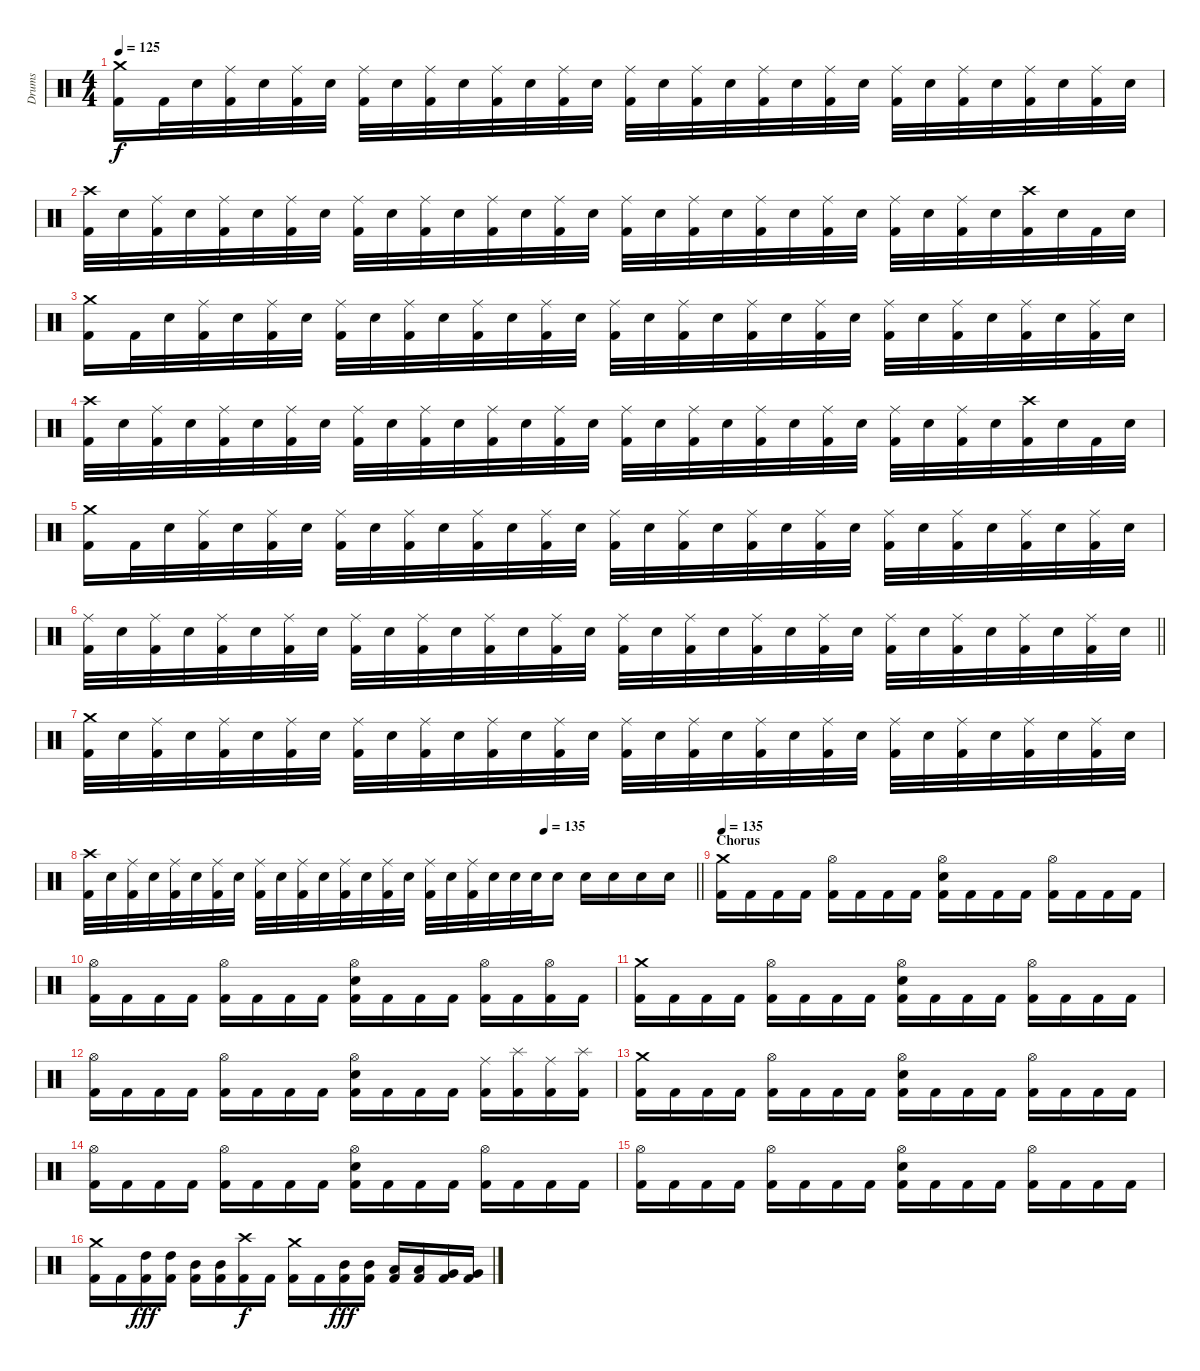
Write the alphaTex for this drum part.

\track ("Drums" "Drums") {instrument percussion}
\staff {score}
\articulation defaults
\ts (4 4)
\tempo 125
\clef neutral
\ks c
("Kick (hit) 2" "Crash medium (hit)").16{dy f} "Kick (hit) 2".32 "Electric Snare (hit)".32 ("Kick (hit) 2" "Ride (middle)").32 "Electric Snare (hit)".32 ("Kick (hit) 2" "Ride (middle)").32 "Electric Snare (hit)".32 ("Kick (hit) 2" "Ride (middle)").32 "Electric Snare (hit)".32 ("Kick (hit) 2" "Ride (middle)").32 "Electric Snare (hit)".32 ("Kick (hit) 2" "Ride (middle)").32 "Electric Snare (hit)".32 ("Kick (hit) 2" "Ride (middle)").32 "Electric Snare (hit)".32 ("Kick (hit) 2" "Ride (middle)").32 "Electric Snare (hit)".32 ("Kick (hit) 2" "Ride (middle)").32 "Electric Snare (hit)".32 ("Kick (hit) 2" "Ride (middle)").32 "Electric Snare (hit)".32 ("Kick (hit) 2" "Ride (middle)").32 "Electric Snare (hit)".32 ("Kick (hit) 2" "Ride (middle)").32 "Electric Snare (hit)".32 ("Kick (hit) 2" "Ride (middle)").32 "Electric Snare (hit)".32 ("Kick (hit) 2" "Ride (middle)").32 "Electric Snare (hit)".32 ("Kick (hit) 2" "Ride (middle)").32 "Electric Snare (hit)".32 |
("Kick (hit) 2" "Crash high (hit)").32 "Electric Snare (hit)".32 ("Kick (hit) 2" "Ride (middle)").32 "Electric Snare (hit)".32 ("Kick (hit) 2" "Ride (middle)").32 "Electric Snare (hit)".32 ("Kick (hit) 2" "Ride (middle)").32 "Electric Snare (hit)".32 ("Kick (hit) 2" "Ride (middle)").32 "Electric Snare (hit)".32 ("Kick (hit) 2" "Ride (middle)").32 "Electric Snare (hit)".32 ("Kick (hit) 2" "Ride (middle)").32 "Electric Snare (hit)".32 ("Kick (hit) 2" "Ride (middle)").32 "Electric Snare (hit)".32 ("Kick (hit) 2" "Ride (middle)").32 "Electric Snare (hit)".32 ("Kick (hit) 2" "Ride (middle)").32 "Electric Snare (hit)".32 ("Kick (hit) 2" "Ride (middle)").32 "Electric Snare (hit)".32 ("Kick (hit) 2" "Ride (middle)").32 "Electric Snare (hit)".32 ("Kick (hit) 2" "Ride (middle)").32 "Electric Snare (hit)".32 ("Kick (hit) 2" "Ride (middle)").32 "Electric Snare (hit)".32 ("Kick (hit) 2" "Crash high (hit)").32 "Electric Snare (hit)".32 "Kick (hit) 2".32 "Electric Snare (hit)".32 |
("Kick (hit) 2" "Crash medium (hit)").16 "Kick (hit) 2".32 "Electric Snare (hit)".32 ("Kick (hit) 2" "Ride (middle)").32 "Electric Snare (hit)".32 ("Kick (hit) 2" "Ride (middle)").32 "Electric Snare (hit)".32 ("Kick (hit) 2" "Ride (middle)").32 "Electric Snare (hit)".32 ("Kick (hit) 2" "Ride (middle)").32 "Electric Snare (hit)".32 ("Kick (hit) 2" "Ride (middle)").32 "Electric Snare (hit)".32 ("Kick (hit) 2" "Ride (middle)").32 "Electric Snare (hit)".32 ("Kick (hit) 2" "Ride (middle)").32 "Electric Snare (hit)".32 ("Kick (hit) 2" "Ride (middle)").32 "Electric Snare (hit)".32 ("Kick (hit) 2" "Ride (middle)").32 "Electric Snare (hit)".32 ("Kick (hit) 2" "Ride (middle)").32 "Electric Snare (hit)".32 ("Kick (hit) 2" "Ride (middle)").32 "Electric Snare (hit)".32 ("Kick (hit) 2" "Ride (middle)").32 "Electric Snare (hit)".32 ("Kick (hit) 2" "Ride (middle)").32 "Electric Snare (hit)".32 ("Kick (hit) 2" "Ride (middle)").32 "Electric Snare (hit)".32 |
("Kick (hit) 2" "Crash high (hit)").32 "Electric Snare (hit)".32 ("Kick (hit) 2" "Ride (middle)").32 "Electric Snare (hit)".32 ("Kick (hit) 2" "Ride (middle)").32 "Electric Snare (hit)".32 ("Kick (hit) 2" "Ride (middle)").32 "Electric Snare (hit)".32 ("Kick (hit) 2" "Ride (middle)").32 "Electric Snare (hit)".32 ("Kick (hit) 2" "Ride (middle)").32 "Electric Snare (hit)".32 ("Kick (hit) 2" "Ride (middle)").32 "Electric Snare (hit)".32 ("Kick (hit) 2" "Ride (middle)").32 "Electric Snare (hit)".32 ("Kick (hit) 2" "Ride (middle)").32 "Electric Snare (hit)".32 ("Kick (hit) 2" "Ride (middle)").32 "Electric Snare (hit)".32 ("Kick (hit) 2" "Ride (middle)").32 "Electric Snare (hit)".32 ("Kick (hit) 2" "Ride (middle)").32 "Electric Snare (hit)".32 ("Kick (hit) 2" "Ride (middle)").32 "Electric Snare (hit)".32 ("Kick (hit) 2" "Ride (middle)").32 "Electric Snare (hit)".32 ("Kick (hit) 2" "Crash high (hit)").32 "Electric Snare (hit)".32 "Kick (hit) 2".32 "Electric Snare (hit)".32 |
("Kick (hit) 2" "Crash medium (hit)").16 "Kick (hit) 2".32 "Electric Snare (hit)".32 ("Kick (hit) 2" "Ride (middle)").32 "Electric Snare (hit)".32 ("Kick (hit) 2" "Ride (middle)").32 "Electric Snare (hit)".32 ("Kick (hit) 2" "Ride (middle)").32 "Electric Snare (hit)".32 ("Kick (hit) 2" "Ride (middle)").32 "Electric Snare (hit)".32 ("Kick (hit) 2" "Ride (middle)").32 "Electric Snare (hit)".32 ("Kick (hit) 2" "Ride (middle)").32 "Electric Snare (hit)".32 ("Kick (hit) 2" "Ride (middle)").32 "Electric Snare (hit)".32 ("Kick (hit) 2" "Ride (middle)").32 "Electric Snare (hit)".32 ("Kick (hit) 2" "Ride (middle)").32 "Electric Snare (hit)".32 ("Kick (hit) 2" "Ride (middle)").32 "Electric Snare (hit)".32 ("Kick (hit) 2" "Ride (middle)").32 "Electric Snare (hit)".32 ("Kick (hit) 2" "Ride (middle)").32 "Electric Snare (hit)".32 ("Kick (hit) 2" "Ride (middle)").32 "Electric Snare (hit)".32 ("Kick (hit) 2" "Ride (middle)").32 "Electric Snare (hit)".32 |
\barLineRight lightlight
("Kick (hit) 2" "Ride (middle)").32 "Electric Snare (hit)".32 ("Kick (hit) 2" "Ride (middle)").32 "Electric Snare (hit)".32 ("Kick (hit) 2" "Ride (middle)").32 "Electric Snare (hit)".32 ("Kick (hit) 2" "Ride (middle)").32 "Electric Snare (hit)".32 ("Kick (hit) 2" "Ride (middle)").32 "Electric Snare (hit)".32 ("Kick (hit) 2" "Ride (middle)").32 "Electric Snare (hit)".32 ("Kick (hit) 2" "Ride (middle)").32 "Electric Snare (hit)".32 ("Kick (hit) 2" "Ride (middle)").32 "Electric Snare (hit)".32 ("Kick (hit) 2" "Ride (middle)").32 "Electric Snare (hit)".32 ("Kick (hit) 2" "Ride (middle)").32 "Electric Snare (hit)".32 ("Kick (hit) 2" "Ride (middle)").32 "Electric Snare (hit)".32 ("Kick (hit) 2" "Ride (middle)").32 "Electric Snare (hit)".32 ("Kick (hit) 2" "Ride (middle)").32 "Electric Snare (hit)".32 ("Kick (hit) 2" "Ride (middle)").32 "Electric Snare (hit)".32 ("Kick (hit) 2" "Ride (middle)").32 "Electric Snare (hit)".32 ("Kick (hit) 2" "Ride (middle)").32 "Electric Snare (hit)".32 |
("Kick (hit) 2" "Crash medium (hit)").32 "Electric Snare (hit)".32 ("Kick (hit) 2" "Ride (middle)").32 "Electric Snare (hit)".32 ("Kick (hit) 2" "Ride (middle)").32 "Electric Snare (hit)".32 ("Kick (hit) 2" "Ride (middle)").32 "Electric Snare (hit)".32 ("Kick (hit) 2" "Ride (middle)").32 "Electric Snare (hit)".32 ("Kick (hit) 2" "Ride (middle)").32 "Electric Snare (hit)".32 ("Kick (hit) 2" "Ride (middle)").32 "Electric Snare (hit)".32 ("Kick (hit) 2" "Ride (middle)").32 "Electric Snare (hit)".32 ("Kick (hit) 2" "Ride (middle)").32 "Electric Snare (hit)".32 ("Kick (hit) 2" "Ride (middle)").32 "Electric Snare (hit)".32 ("Kick (hit) 2" "Ride (middle)").32 "Electric Snare (hit)".32 ("Kick (hit) 2" "Ride (middle)").32 "Electric Snare (hit)".32 ("Kick (hit) 2" "Ride (middle)").32 "Electric Snare (hit)".32 ("Kick (hit) 2" "Ride (middle)").32 "Electric Snare (hit)".32 ("Kick (hit) 2" "Ride (middle)").32 "Electric Snare (hit)".32 ("Kick (hit) 2" "Ride (middle)").32 "Electric Snare (hit)".32 |
\tempo (135 0.75)
\barLineRight lightlight
("Kick (hit) 2" "Crash high (hit)").32 "Electric Snare (hit)".32 ("Kick (hit) 2" "Ride (middle)").32 "Electric Snare (hit)".32 ("Kick (hit) 2" "Ride (middle)").32 "Electric Snare (hit)".32 ("Kick (hit) 2" "Ride (middle)").32 "Electric Snare (hit)".32 ("Kick (hit) 2" "Ride (middle)").32 "Electric Snare (hit)".32 ("Kick (hit) 2" "Ride (middle)").32 "Electric Snare (hit)".32 ("Kick (hit) 2" "Ride (middle)").32 "Electric Snare (hit)".32 ("Kick (hit) 2" "Ride (middle)").32 "Electric Snare (hit)".32 ("Kick (hit) 2" "Ride (middle)").32 "Electric Snare (hit)".32 ("Kick (hit) 2" "Ride (middle)").32 "Electric Snare (hit)".32 "Electric Snare (hit)".32 "Electric Snare (hit)".32 "Electric Snare (hit)".16 "Electric Snare (hit)".16 "Electric Snare (hit)".16 "Electric Snare (hit)".16 "Electric Snare (hit)".16 |
\section ("" "Chorus")
\tempo 135
("Kick (hit) 2" "Crash medium (hit)").16 "Kick (hit) 2".16 "Kick (hit) 2".16 "Kick (hit) 2".16 ("Kick (hit) 2" "Hi-Hat (open)").16 "Kick (hit) 2".16 "Kick (hit) 2".16 "Kick (hit) 2".16 ("Kick (hit) 2" "Electric Snare (hit)" "Hi-Hat (open)").16 "Kick (hit) 2".16 "Kick (hit) 2".16 "Kick (hit) 2".16 ("Kick (hit) 2" "Hi-Hat (open)").16 "Kick (hit) 2".16 "Kick (hit) 2".16 "Kick (hit) 2".16 |
("Kick (hit) 2" "Hi-Hat (open)").16 "Kick (hit) 2".16 "Kick (hit) 2".16 "Kick (hit) 2".16 ("Kick (hit) 2" "Hi-Hat (open)").16 "Kick (hit) 2".16 "Kick (hit) 2".16 "Kick (hit) 2".16 ("Kick (hit) 2" "Electric Snare (hit)" "Hi-Hat (open)").16 "Kick (hit) 2".16 "Kick (hit) 2".16 "Kick (hit) 2".16 ("Kick (hit) 2" "Hi-Hat (open)").16 "Kick (hit) 2".16 ("Kick (hit) 2" "Hi-Hat (open)").16 "Kick (hit) 2".16 |
("Kick (hit) 2" "Crash medium (hit)").16 "Kick (hit) 2".16 "Kick (hit) 2".16 "Kick (hit) 2".16 ("Kick (hit) 2" "Hi-Hat (open)").16 "Kick (hit) 2".16 "Kick (hit) 2".16 "Kick (hit) 2".16 ("Kick (hit) 2" "Electric Snare (hit)" "Hi-Hat (open)").16 "Kick (hit) 2".16 "Kick (hit) 2".16 "Kick (hit) 2".16 ("Kick (hit) 2" "Hi-Hat (open)").16 "Kick (hit) 2".16 "Kick (hit) 2".16 "Kick (hit) 2".16 |
("Kick (hit) 2" "Hi-Hat (open)").16 "Kick (hit) 2".16 "Kick (hit) 2".16 "Kick (hit) 2".16 ("Kick (hit) 2" "Hi-Hat (open)").16 "Kick (hit) 2".16 "Kick (hit) 2".16 "Kick (hit) 2".16 ("Kick (hit) 2" "Electric Snare (hit)" "Hi-Hat (open)").16 "Kick (hit) 2".16 "Kick (hit) 2".16 "Kick (hit) 2".16 ("Kick (hit) 2" "Ride (middle)").16 ("Kick (hit) 2" "Splash (hit)").16 ("Kick (hit) 2" "Ride (middle)").16 ("Kick (hit) 2" "Splash (hit)").16 |
("Kick (hit) 2" "Crash medium (hit)").16 "Kick (hit) 2".16 "Kick (hit) 2".16 "Kick (hit) 2".16 ("Kick (hit) 2" "Hi-Hat (open)").16 "Kick (hit) 2".16 "Kick (hit) 2".16 "Kick (hit) 2".16 ("Kick (hit) 2" "Electric Snare (hit)" "Hi-Hat (open)").16 "Kick (hit) 2".16 "Kick (hit) 2".16 "Kick (hit) 2".16 ("Kick (hit) 2" "Hi-Hat (open)").16 "Kick (hit) 2".16 "Kick (hit) 2".16 "Kick (hit) 2".16 |
("Kick (hit) 2" "Hi-Hat (open)").16 "Kick (hit) 2".16 "Kick (hit) 2".16 "Kick (hit) 2".16 ("Kick (hit) 2" "Hi-Hat (open)").16 "Kick (hit) 2".16 "Kick (hit) 2".16 "Kick (hit) 2".16 ("Kick (hit) 2" "Electric Snare (hit)" "Hi-Hat (open)").16 "Kick (hit) 2".16 "Kick (hit) 2".16 "Kick (hit) 2".16 ("Kick (hit) 2" "Hi-Hat (open)").16 "Kick (hit) 2".16 "Kick (hit) 2".16 "Kick (hit) 2".16 |
("Kick (hit) 2" "Hi-Hat (open)").16 "Kick (hit) 2".16 "Kick (hit) 2".16 "Kick (hit) 2".16 ("Kick (hit) 2" "Hi-Hat (open)").16 "Kick (hit) 2".16 "Kick (hit) 2".16 "Kick (hit) 2".16 ("Kick (hit) 2" "Electric Snare (hit)" "Hi-Hat (open)").16 "Kick (hit) 2".16 "Kick (hit) 2".16 "Kick (hit) 2".16 ("Kick (hit) 2" "Hi-Hat (open)").16 "Kick (hit) 2".16 "Kick (hit) 2".16 "Kick (hit) 2".16 |
("Kick (hit) 2" "Crash medium (hit)").16 "Kick (hit) 2".16 ("Kick (hit) 2" "High Tom (hit)").16{dy fff} ("Kick (hit) 2" "High Tom (hit)").16 ("Kick (hit) 2" "Mid Tom (hit)").16 ("Kick (hit) 2" "Mid Tom (hit)").16 ("Kick (hit) 2" "Crash high (hit)").16{dy f} "Kick (hit) 2".16 ("Kick (hit) 2" "Crash medium (hit)").16 "Kick (hit) 2".16 ("Kick (hit) 2" "Mid Tom (hit)").16{dy fff} ("Kick (hit) 2" "Mid Tom (hit)").16 ("Kick (hit) 2" "Low Tom (hit)").16 ("Kick (hit) 2" "Low Tom (hit)").16 ("Kick (hit) 2" "Very Low Tom (hit)").16 ("Kick (hit) 2" "Very Low Tom (hit)").16
